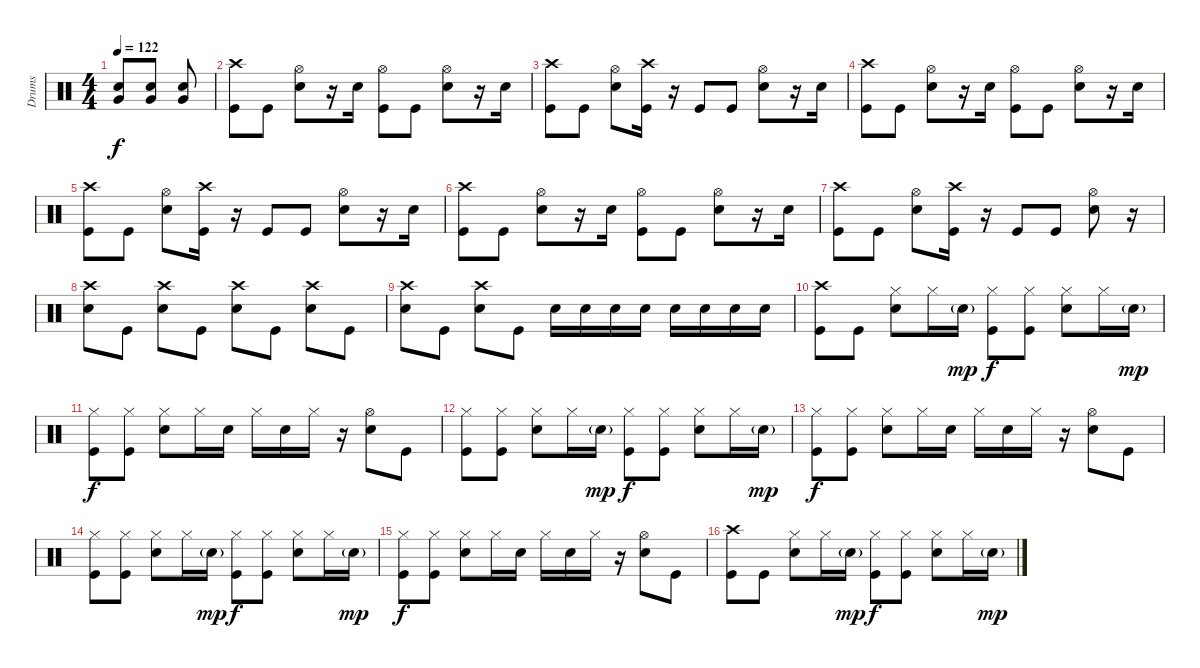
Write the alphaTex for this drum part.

\track ("Drums" "Drums") {instrument percussion}
\staff {score}
\articulation defaults
\ts (4 4)
\tempo 122
\clef neutral
\ks c
("Snare (hit) 2" "Very Low Tom (hit)").8{dy f} ("Snare (hit) 2" "Very Low Tom (hit)").8 ("Snare (hit) 2" "Very Low Tom (hit)").8 |
("Crash high (hit)" "Kick (hit)").8 "Kick (hit)".8 ("Hi-Hat (open)" "Snare (hit) 2").8 r.16 "Snare (hit) 2".16 ("Hi-Hat (open)" "Kick (hit)").8 "Kick (hit)".8 ("Hi-Hat (open)" "Snare (hit) 2").8 r.16 "Snare (hit) 2".16 |
("Crash high (hit)" "Kick (hit)").8 "Kick (hit)".8 ("Hi-Hat (open)" "Snare (hit) 2").8 ("Crash high (hit)" "Kick (hit)").16 r.16 "Kick (hit)".8 "Kick (hit)".8 ("Hi-Hat (open)" "Snare (hit) 2").8 r.16 "Snare (hit) 2".16 |
("Crash high (hit)" "Kick (hit)").8 "Kick (hit)".8 ("Hi-Hat (open)" "Snare (hit) 2").8 r.16 "Snare (hit) 2".16 ("Hi-Hat (open)" "Kick (hit)").8 "Kick (hit)".8 ("Hi-Hat (open)" "Snare (hit) 2").8 r.16 "Snare (hit) 2".16 |
("Crash high (hit)" "Kick (hit)").8 "Kick (hit)".8 ("Hi-Hat (open)" "Snare (hit) 2").8 ("Crash high (hit)" "Kick (hit)").16 r.16 "Kick (hit)".8 "Kick (hit)".8 ("Hi-Hat (open)" "Snare (hit) 2").8 r.16 "Snare (hit) 2".16 |
("Crash high (hit)" "Kick (hit)").8 "Kick (hit)".8 ("Hi-Hat (open)" "Snare (hit) 2").8 r.16 "Snare (hit) 2".16 ("Hi-Hat (open)" "Kick (hit)").8 "Kick (hit)".8 ("Hi-Hat (open)" "Snare (hit) 2").8 r.16 "Snare (hit) 2".16 |
("Crash high (hit)" "Kick (hit)").8 "Kick (hit)".8 ("Hi-Hat (open)" "Snare (hit) 2").8 ("Crash high (hit)" "Kick (hit)").16 r.16 "Kick (hit)".8 "Kick (hit)".8 ("Hi-Hat (open)" "Snare (hit) 2").8 r.16 |
("Crash high (hit)" "Snare (hit) 2").8 "Kick (hit)".8 ("Crash high (hit)" "Snare (hit) 2").8 "Kick (hit)".8 ("Crash high (hit)" "Snare (hit) 2").8 "Kick (hit)".8 ("Crash high (hit)" "Snare (hit) 2").8 "Kick (hit)".8 |
("Crash high (hit)" "Snare (hit) 2").8 "Kick (hit)".8 ("Crash high (hit)" "Snare (hit) 2").8 "Kick (hit)".8 "Snare (hit) 2".16 "Snare (hit) 2".16 "Snare (hit) 2".16 "Snare (hit) 2".16 "Snare (hit) 2".16 "Snare (hit) 2".16 "Snare (hit) 2".16 "Snare (hit) 2".16 |
("Crash high (hit)" "Kick (hit)").8 "Kick (hit)".8 ("Hi-Hat (closed)" "Snare (hit) 2").8 "Hi-Hat (closed)".16 "Snare (hit) 2"{g}.16{dy mp} ("Hi-Hat (closed)" "Kick (hit)").8{dy f} ("Hi-Hat (closed)" "Kick (hit)").8 ("Hi-Hat (closed)" "Snare (hit) 2").8 "Hi-Hat (closed)".16 "Snare (hit) 2"{g}.16{dy mp} |
("Hi-Hat (closed)" "Kick (hit)").8{dy f} ("Hi-Hat (closed)" "Kick (hit)").8 ("Hi-Hat (closed)" "Snare (hit) 2").8 "Hi-Hat (closed)".16 "Snare (hit) 2".16 "Hi-Hat (closed)".16 "Snare (hit) 2".16 "Hi-Hat (closed)".16 r.16 ("Hi-Hat (open)" "Snare (hit) 2").8 "Kick (hit)".8 |
("Hi-Hat (closed)" "Kick (hit)").8 ("Hi-Hat (closed)" "Kick (hit)").8 ("Hi-Hat (closed)" "Snare (hit) 2").8 "Hi-Hat (closed)".16 "Snare (hit) 2"{g}.16{dy mp} ("Hi-Hat (closed)" "Kick (hit)").8{dy f} ("Hi-Hat (closed)" "Kick (hit)").8 ("Hi-Hat (closed)" "Snare (hit) 2").8 "Hi-Hat (closed)".16 "Snare (hit) 2"{g}.16{dy mp} |
("Hi-Hat (closed)" "Kick (hit)").8{dy f} ("Hi-Hat (closed)" "Kick (hit)").8 ("Hi-Hat (closed)" "Snare (hit) 2").8 "Hi-Hat (closed)".16 "Snare (hit) 2".16 "Hi-Hat (closed)".16 "Snare (hit) 2".16 "Hi-Hat (closed)".16 r.16 ("Hi-Hat (open)" "Snare (hit) 2").8 "Kick (hit)".8 |
("Hi-Hat (closed)" "Kick (hit)").8 ("Hi-Hat (closed)" "Kick (hit)").8 ("Hi-Hat (closed)" "Snare (hit) 2").8 "Hi-Hat (closed)".16 "Snare (hit) 2"{g}.16{dy mp} ("Hi-Hat (closed)" "Kick (hit)").8{dy f} ("Hi-Hat (closed)" "Kick (hit)").8 ("Hi-Hat (closed)" "Snare (hit) 2").8 "Hi-Hat (closed)".16 "Snare (hit) 2"{g}.16{dy mp} |
("Hi-Hat (closed)" "Kick (hit)").8{dy f} ("Hi-Hat (closed)" "Kick (hit)").8 ("Hi-Hat (closed)" "Snare (hit) 2").8 "Hi-Hat (closed)".16 "Snare (hit) 2".16 "Hi-Hat (closed)".16 "Snare (hit) 2".16 "Hi-Hat (closed)".16 r.16 ("Hi-Hat (open)" "Snare (hit) 2").8 "Kick (hit)".8 |
("Crash high (hit)" "Kick (hit)").8 "Kick (hit)".8 ("Hi-Hat (closed)" "Snare (hit) 2").8 "Hi-Hat (closed)".16 "Snare (hit) 2"{g}.16{dy mp} ("Hi-Hat (closed)" "Kick (hit)").8{dy f} ("Hi-Hat (closed)" "Kick (hit)").8 ("Hi-Hat (closed)" "Snare (hit) 2").8 "Hi-Hat (closed)".16 "Snare (hit) 2"{g}.16{dy mp}
